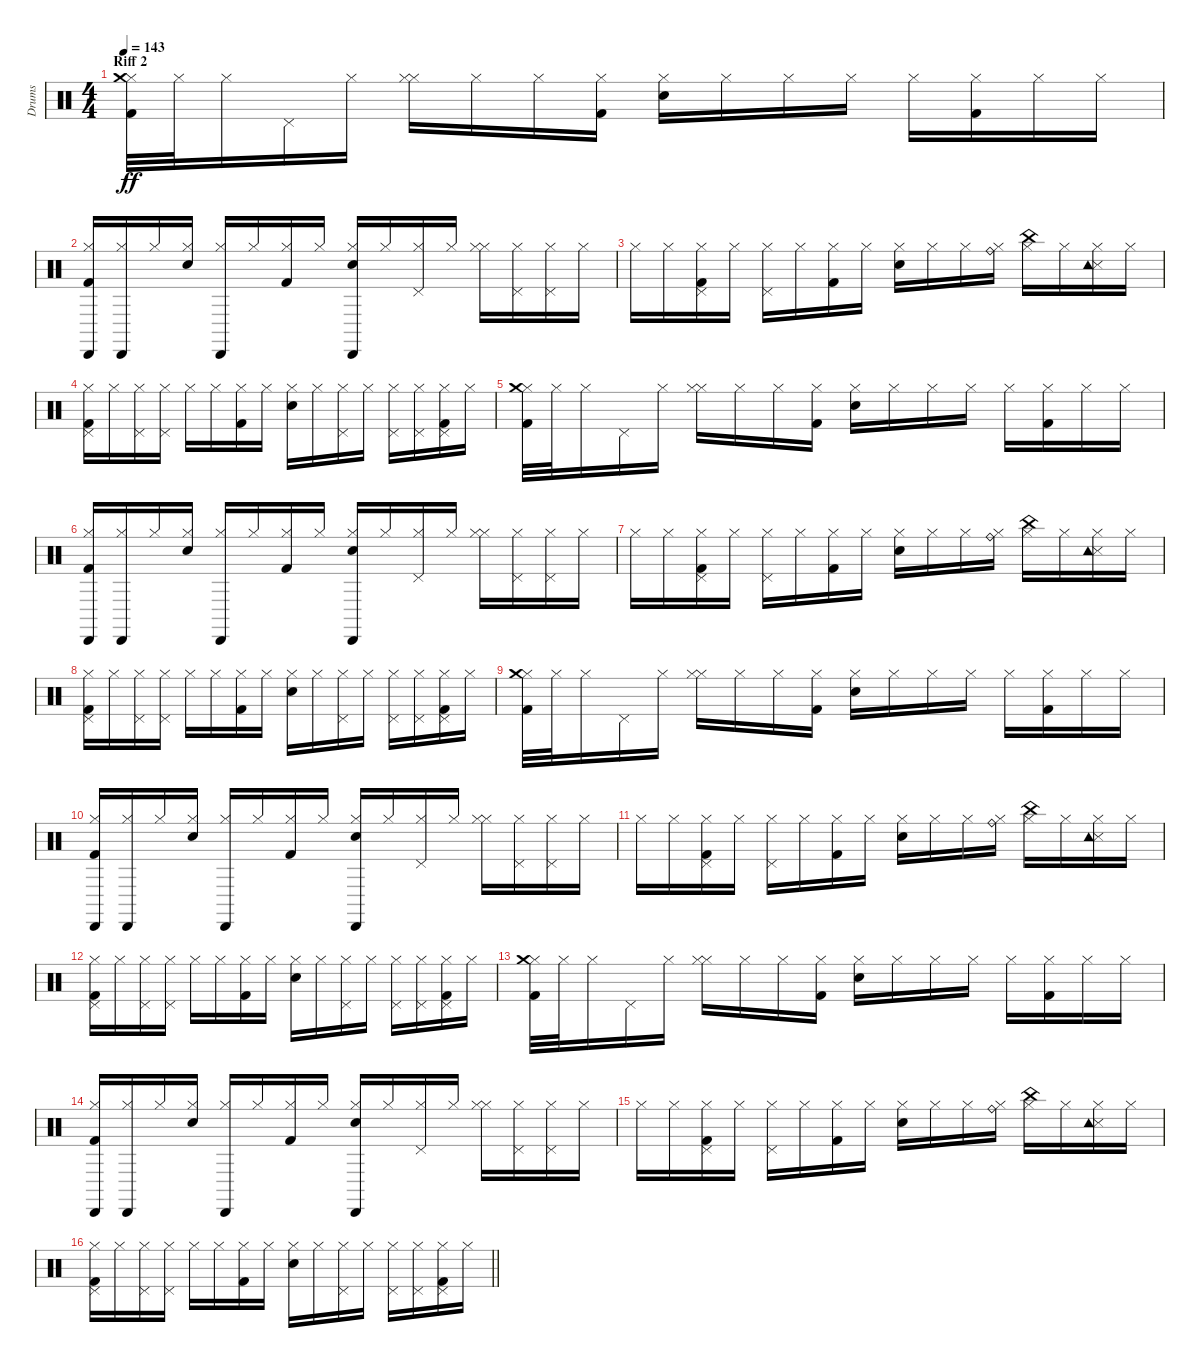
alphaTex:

\track ("Drums" "Drums") {instrument percussion}
\staff {score}
\articulation defaults
\ts (4 4)
\section ("" "Riff 2")
\tempo 143
\clef neutral
\ks c
("Kick (hit) 2" "Hi-Hat (closed)" "Crash medium (hit)").32{dy ff} "Hi-Hat (closed)".32 "Hi-Hat (closed)".16 "Pedal Hi-Hat (hit)".16 "Hi-Hat (closed)".16 ("Hi-Hat (closed)" "Hi-Hat (closed)").16 "Hi-Hat (closed)".16 "Hi-Hat (closed)".16 ("Kick (hit) 2" "Hi-Hat (closed)").16 ("Snare (hit) 2" "Hi-Hat (closed)").16 "Hi-Hat (closed)".16 "Hi-Hat (closed)".16 "Hi-Hat (closed)".16 "Hi-Hat (closed)".16 ("Kick (hit) 2" "Hi-Hat (closed)").16 "Hi-Hat (closed)".16 "Hi-Hat (closed)".16 |
("Kick (hit) 2" "Cabasa (hit)" "Hi-Hat (closed)").16 ("Cabasa (hit)" "Hi-Hat (closed)").16 "Hi-Hat (closed)".16 ("Snare (hit) 2" "Hi-Hat (closed)").16 ("Cabasa (hit)" "Hi-Hat (closed)").16 "Hi-Hat (closed)".16 ("Kick (hit) 2" "Hi-Hat (closed)").16 "Hi-Hat (closed)".16 ("Snare (hit) 2" "Cabasa (hit)" "Hi-Hat (closed)").16 "Hi-Hat (closed)".16 ("Pedal Hi-Hat (hit)" "Hi-Hat (closed)").16 "Hi-Hat (closed)".16 ("Hi-Hat (closed)" "Hi-Hat (closed)").16 ("Pedal Hi-Hat (hit)" "Hi-Hat (closed)").16 ("Pedal Hi-Hat (hit)" "Hi-Hat (closed)").16 "Hi-Hat (closed)".16 |
"Hi-Hat (closed)".16 "Hi-Hat (closed)".16 ("Kick (hit) 2" "Pedal Hi-Hat (hit)" "Hi-Hat (closed)").16 "Hi-Hat (closed)".16 ("Hi-Hat (closed)" "Pedal Hi-Hat (hit)").16 "Hi-Hat (closed)".16 ("Kick (hit) 2" "Hi-Hat (closed)").16 "Hi-Hat (closed)".16 ("Snare (hit) 2" "Hi-Hat (closed)").16 "Hi-Hat (closed)".16 "Hi-Hat (closed)".16 ("Ride (bell)" "Hi-Hat (closed)").16 ("China (hit)" "Hi-Hat (closed)").16 "Hi-Hat (closed)".16 ("Snare (side stick) 3" "Tambourine (hit)" "Hi-Hat (closed)").16 "Hi-Hat (closed)".16 |
("Kick (hit) 2" "Hi-Hat (closed)" "Pedal Hi-Hat (hit)").16 "Hi-Hat (closed)".16 ("Hi-Hat (closed)" "Pedal Hi-Hat (hit)").16 ("Hi-Hat (closed)" "Pedal Hi-Hat (hit)").16 "Hi-Hat (closed)".16 "Hi-Hat (closed)".16 ("Kick (hit) 2" "Hi-Hat (closed)").16 "Hi-Hat (closed)".16 ("Snare (hit) 2" "Hi-Hat (closed)").16 "Hi-Hat (closed)".16 ("Hi-Hat (closed)" "Pedal Hi-Hat (hit)").16 "Hi-Hat (closed)".16 ("Hi-Hat (closed)" "Pedal Hi-Hat (hit)").16 ("Hi-Hat (closed)" "Pedal Hi-Hat (hit)").16 ("Kick (hit) 2" "Hi-Hat (closed)" "Pedal Hi-Hat (hit)").16 "Hi-Hat (closed)".16 |
("Kick (hit) 2" "Hi-Hat (closed)" "Crash medium (hit)").32 "Hi-Hat (closed)".32 "Hi-Hat (closed)".16 "Pedal Hi-Hat (hit)".16 "Hi-Hat (closed)".16 ("Hi-Hat (closed)" "Hi-Hat (closed)").16 "Hi-Hat (closed)".16 "Hi-Hat (closed)".16 ("Kick (hit) 2" "Hi-Hat (closed)").16 ("Snare (hit) 2" "Hi-Hat (closed)").16 "Hi-Hat (closed)".16 "Hi-Hat (closed)".16 "Hi-Hat (closed)".16 "Hi-Hat (closed)".16 ("Kick (hit) 2" "Hi-Hat (closed)").16 "Hi-Hat (closed)".16 "Hi-Hat (closed)".16 |
("Kick (hit) 2" "Cabasa (hit)" "Hi-Hat (closed)").16 ("Cabasa (hit)" "Hi-Hat (closed)").16 "Hi-Hat (closed)".16 ("Snare (hit) 2" "Hi-Hat (closed)").16 ("Cabasa (hit)" "Hi-Hat (closed)").16 "Hi-Hat (closed)".16 ("Kick (hit) 2" "Hi-Hat (closed)").16 "Hi-Hat (closed)".16 ("Snare (hit) 2" "Cabasa (hit)" "Hi-Hat (closed)").16 "Hi-Hat (closed)".16 ("Pedal Hi-Hat (hit)" "Hi-Hat (closed)").16 "Hi-Hat (closed)".16 ("Hi-Hat (closed)" "Hi-Hat (closed)").16 ("Pedal Hi-Hat (hit)" "Hi-Hat (closed)").16 ("Pedal Hi-Hat (hit)" "Hi-Hat (closed)").16 "Hi-Hat (closed)".16 |
"Hi-Hat (closed)".16 "Hi-Hat (closed)".16 ("Kick (hit) 2" "Pedal Hi-Hat (hit)" "Hi-Hat (closed)").16 "Hi-Hat (closed)".16 ("Hi-Hat (closed)" "Pedal Hi-Hat (hit)").16 "Hi-Hat (closed)".16 ("Kick (hit) 2" "Hi-Hat (closed)").16 "Hi-Hat (closed)".16 ("Snare (hit) 2" "Hi-Hat (closed)").16 "Hi-Hat (closed)".16 "Hi-Hat (closed)".16 ("Ride (bell)" "Hi-Hat (closed)").16 ("China (hit)" "Hi-Hat (closed)").16 "Hi-Hat (closed)".16 ("Snare (side stick) 3" "Tambourine (hit)" "Hi-Hat (closed)").16 "Hi-Hat (closed)".16 |
("Kick (hit) 2" "Hi-Hat (closed)" "Pedal Hi-Hat (hit)").16 "Hi-Hat (closed)".16 ("Hi-Hat (closed)" "Pedal Hi-Hat (hit)").16 ("Hi-Hat (closed)" "Pedal Hi-Hat (hit)").16 "Hi-Hat (closed)".16 "Hi-Hat (closed)".16 ("Kick (hit) 2" "Hi-Hat (closed)").16 "Hi-Hat (closed)".16 ("Snare (hit) 2" "Hi-Hat (closed)").16 "Hi-Hat (closed)".16 ("Hi-Hat (closed)" "Pedal Hi-Hat (hit)").16 "Hi-Hat (closed)".16 ("Hi-Hat (closed)" "Pedal Hi-Hat (hit)").16 ("Hi-Hat (closed)" "Pedal Hi-Hat (hit)").16 ("Kick (hit) 2" "Hi-Hat (closed)" "Pedal Hi-Hat (hit)").16 "Hi-Hat (closed)".16 |
("Kick (hit) 2" "Hi-Hat (closed)" "Crash medium (hit)").32 "Hi-Hat (closed)".32 "Hi-Hat (closed)".16 "Pedal Hi-Hat (hit)".16 "Hi-Hat (closed)".16 ("Hi-Hat (closed)" "Hi-Hat (closed)").16 "Hi-Hat (closed)".16 "Hi-Hat (closed)".16 ("Kick (hit) 2" "Hi-Hat (closed)").16 ("Snare (hit) 2" "Hi-Hat (closed)").16 "Hi-Hat (closed)".16 "Hi-Hat (closed)".16 "Hi-Hat (closed)".16 "Hi-Hat (closed)".16 ("Kick (hit) 2" "Hi-Hat (closed)").16 "Hi-Hat (closed)".16 "Hi-Hat (closed)".16 |
("Kick (hit) 2" "Cabasa (hit)" "Hi-Hat (closed)").16 ("Cabasa (hit)" "Hi-Hat (closed)").16 "Hi-Hat (closed)".16 ("Snare (hit) 2" "Hi-Hat (closed)").16 ("Cabasa (hit)" "Hi-Hat (closed)").16 "Hi-Hat (closed)".16 ("Kick (hit) 2" "Hi-Hat (closed)").16 "Hi-Hat (closed)".16 ("Snare (hit) 2" "Cabasa (hit)" "Hi-Hat (closed)").16 "Hi-Hat (closed)".16 ("Pedal Hi-Hat (hit)" "Hi-Hat (closed)").16 "Hi-Hat (closed)".16 ("Hi-Hat (closed)" "Hi-Hat (closed)").16 ("Pedal Hi-Hat (hit)" "Hi-Hat (closed)").16 ("Pedal Hi-Hat (hit)" "Hi-Hat (closed)").16 "Hi-Hat (closed)".16 |
"Hi-Hat (closed)".16 "Hi-Hat (closed)".16 ("Kick (hit) 2" "Pedal Hi-Hat (hit)" "Hi-Hat (closed)").16 "Hi-Hat (closed)".16 ("Hi-Hat (closed)" "Pedal Hi-Hat (hit)").16 "Hi-Hat (closed)".16 ("Kick (hit) 2" "Hi-Hat (closed)").16 "Hi-Hat (closed)".16 ("Snare (hit) 2" "Hi-Hat (closed)").16 "Hi-Hat (closed)".16 "Hi-Hat (closed)".16 ("Ride (bell)" "Hi-Hat (closed)").16 ("China (hit)" "Hi-Hat (closed)").16 "Hi-Hat (closed)".16 ("Snare (side stick) 3" "Tambourine (hit)" "Hi-Hat (closed)").16 "Hi-Hat (closed)".16 |
("Kick (hit) 2" "Hi-Hat (closed)" "Pedal Hi-Hat (hit)").16 "Hi-Hat (closed)".16 ("Hi-Hat (closed)" "Pedal Hi-Hat (hit)").16 ("Hi-Hat (closed)" "Pedal Hi-Hat (hit)").16 "Hi-Hat (closed)".16 "Hi-Hat (closed)".16 ("Kick (hit) 2" "Hi-Hat (closed)").16 "Hi-Hat (closed)".16 ("Snare (hit) 2" "Hi-Hat (closed)").16 "Hi-Hat (closed)".16 ("Hi-Hat (closed)" "Pedal Hi-Hat (hit)").16 "Hi-Hat (closed)".16 ("Hi-Hat (closed)" "Pedal Hi-Hat (hit)").16 ("Hi-Hat (closed)" "Pedal Hi-Hat (hit)").16 ("Kick (hit) 2" "Hi-Hat (closed)" "Pedal Hi-Hat (hit)").16 "Hi-Hat (closed)".16 |
("Kick (hit) 2" "Hi-Hat (closed)" "Crash medium (hit)").32 "Hi-Hat (closed)".32 "Hi-Hat (closed)".16 "Pedal Hi-Hat (hit)".16 "Hi-Hat (closed)".16 ("Hi-Hat (closed)" "Hi-Hat (closed)").16 "Hi-Hat (closed)".16 "Hi-Hat (closed)".16 ("Kick (hit) 2" "Hi-Hat (closed)").16 ("Snare (hit) 2" "Hi-Hat (closed)").16 "Hi-Hat (closed)".16 "Hi-Hat (closed)".16 "Hi-Hat (closed)".16 "Hi-Hat (closed)".16 ("Kick (hit) 2" "Hi-Hat (closed)").16 "Hi-Hat (closed)".16 "Hi-Hat (closed)".16 |
("Kick (hit) 2" "Cabasa (hit)" "Hi-Hat (closed)").16 ("Cabasa (hit)" "Hi-Hat (closed)").16 "Hi-Hat (closed)".16 ("Snare (hit) 2" "Hi-Hat (closed)").16 ("Cabasa (hit)" "Hi-Hat (closed)").16 "Hi-Hat (closed)".16 ("Kick (hit) 2" "Hi-Hat (closed)").16 "Hi-Hat (closed)".16 ("Snare (hit) 2" "Cabasa (hit)" "Hi-Hat (closed)").16 "Hi-Hat (closed)".16 ("Pedal Hi-Hat (hit)" "Hi-Hat (closed)").16 "Hi-Hat (closed)".16 ("Hi-Hat (closed)" "Hi-Hat (closed)").16 ("Pedal Hi-Hat (hit)" "Hi-Hat (closed)").16 ("Pedal Hi-Hat (hit)" "Hi-Hat (closed)").16 "Hi-Hat (closed)".16 |
"Hi-Hat (closed)".16 "Hi-Hat (closed)".16 ("Kick (hit) 2" "Pedal Hi-Hat (hit)" "Hi-Hat (closed)").16 "Hi-Hat (closed)".16 ("Hi-Hat (closed)" "Pedal Hi-Hat (hit)").16 "Hi-Hat (closed)".16 ("Kick (hit) 2" "Hi-Hat (closed)").16 "Hi-Hat (closed)".16 ("Snare (hit) 2" "Hi-Hat (closed)").16 "Hi-Hat (closed)".16 "Hi-Hat (closed)".16 ("Ride (bell)" "Hi-Hat (closed)").16 ("China (hit)" "Hi-Hat (closed)").16 "Hi-Hat (closed)".16 ("Snare (side stick) 3" "Tambourine (hit)" "Hi-Hat (closed)").16 "Hi-Hat (closed)".16 |
\barLineRight lightlight
("Kick (hit) 2" "Hi-Hat (closed)" "Pedal Hi-Hat (hit)").16 "Hi-Hat (closed)".16 ("Hi-Hat (closed)" "Pedal Hi-Hat (hit)").16 ("Hi-Hat (closed)" "Pedal Hi-Hat (hit)").16 "Hi-Hat (closed)".16 "Hi-Hat (closed)".16 ("Kick (hit) 2" "Hi-Hat (closed)").16 "Hi-Hat (closed)".16 ("Snare (hit) 2" "Hi-Hat (closed)").16 "Hi-Hat (closed)".16 ("Hi-Hat (closed)" "Pedal Hi-Hat (hit)").16 "Hi-Hat (closed)".16 ("Hi-Hat (closed)" "Pedal Hi-Hat (hit)").16 ("Hi-Hat (closed)" "Pedal Hi-Hat (hit)").16 ("Kick (hit) 2" "Hi-Hat (closed)" "Pedal Hi-Hat (hit)").16 "Hi-Hat (closed)".16
